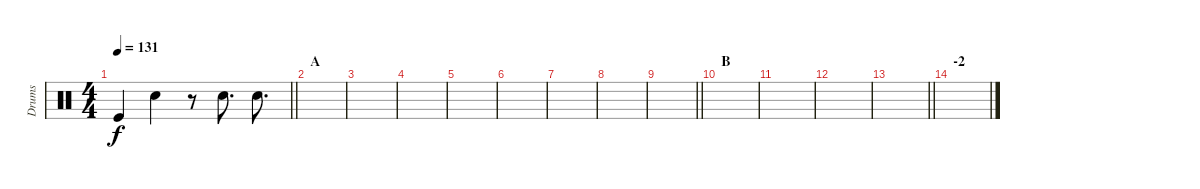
\track ("Drums" "Drums") {instrument percussion}
\staff {score}
\articulation defaults
\ts (4 4)
\tempo 131
\clef neutral
\barLineRight lightlight
\ks c "Kick (hit)".4{dy f} "Snare (hit) 2".4
r.8 "Snare (hit) 2".8{d} "Snare (hit) 2".8{d} |
\section ("" "A")
|
|
|
|
|
|
|
\barLineRight lightlight
|
\section ("" "B")
|
|
|
\barLineRight lightlight
|
\section ("" "-2")
